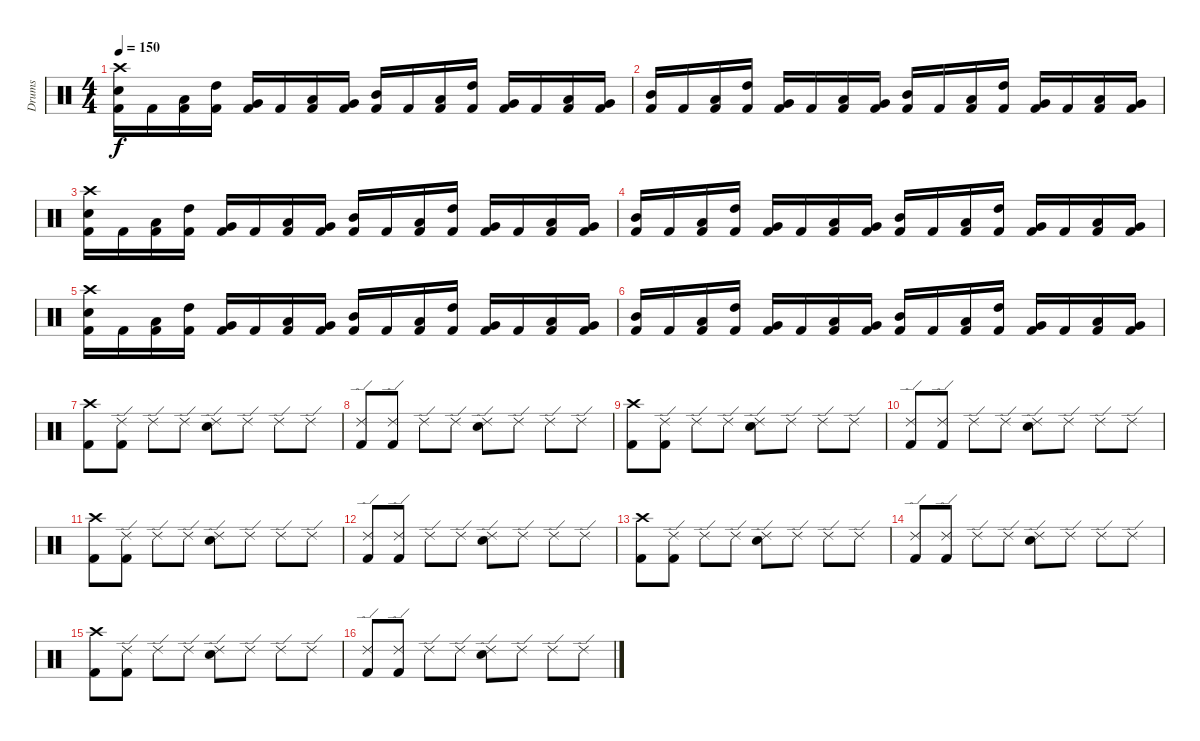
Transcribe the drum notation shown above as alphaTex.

\track ("Drums" "Drums") {instrument percussion}
\staff {score}
\articulation defaults
\ts (4 4)
\tempo 150
\clef neutral
\ks c
("Crash high (hit)" "Snare (hit) 2" "Kick (hit) 2").16{dy f} "Kick (hit) 2".16 ("Low Tom (hit)" "Kick (hit) 2").16 ("High Tom (hit)" "Kick (hit) 2").16 ("Very Low Tom (hit)" "Kick (hit) 2").16 "Kick (hit) 2".16 ("Low Tom (hit)" "Kick (hit) 2").16 ("Very Low Tom (hit)" "Kick (hit) 2").16 ("Mid Tom (hit)" "Kick (hit) 2").16 "Kick (hit) 2".16 ("Low Tom (hit)" "Kick (hit) 2").16 ("High Tom (hit)" "Kick (hit) 2").16 ("Very Low Tom (hit)" "Kick (hit) 2").16 "Kick (hit) 2".16 ("Low Tom (hit)" "Kick (hit) 2").16 ("Very Low Tom (hit)" "Kick (hit) 2").16 |
("Mid Tom (hit)" "Kick (hit) 2").16 "Kick (hit) 2".16 ("Low Tom (hit)" "Kick (hit) 2").16 ("High Tom (hit)" "Kick (hit) 2").16 ("Very Low Tom (hit)" "Kick (hit) 2").16 "Kick (hit) 2".16 ("Low Tom (hit)" "Kick (hit) 2").16 ("Very Low Tom (hit)" "Kick (hit) 2").16 ("Mid Tom (hit)" "Kick (hit) 2").16 "Kick (hit) 2".16 ("Low Tom (hit)" "Kick (hit) 2").16 ("High Tom (hit)" "Kick (hit) 2").16 ("Very Low Tom (hit)" "Kick (hit) 2").16 "Kick (hit) 2".16 ("Low Tom (hit)" "Kick (hit) 2").16 ("Very Low Tom (hit)" "Kick (hit) 2").16 |
("Crash high (hit)" "Snare (hit) 2" "Kick (hit) 2").16 "Kick (hit) 2".16 ("Low Tom (hit)" "Kick (hit) 2").16 ("High Tom (hit)" "Kick (hit) 2").16 ("Very Low Tom (hit)" "Kick (hit) 2").16 "Kick (hit) 2".16 ("Low Tom (hit)" "Kick (hit) 2").16 ("Very Low Tom (hit)" "Kick (hit) 2").16 ("Mid Tom (hit)" "Kick (hit) 2").16 "Kick (hit) 2".16 ("Low Tom (hit)" "Kick (hit) 2").16 ("High Tom (hit)" "Kick (hit) 2").16 ("Very Low Tom (hit)" "Kick (hit) 2").16 "Kick (hit) 2".16 ("Low Tom (hit)" "Kick (hit) 2").16 ("Very Low Tom (hit)" "Kick (hit) 2").16 |
("Mid Tom (hit)" "Kick (hit) 2").16 "Kick (hit) 2".16 ("Low Tom (hit)" "Kick (hit) 2").16 ("High Tom (hit)" "Kick (hit) 2").16 ("Very Low Tom (hit)" "Kick (hit) 2").16 "Kick (hit) 2".16 ("Low Tom (hit)" "Kick (hit) 2").16 ("Very Low Tom (hit)" "Kick (hit) 2").16 ("Mid Tom (hit)" "Kick (hit) 2").16 "Kick (hit) 2".16 ("Low Tom (hit)" "Kick (hit) 2").16 ("High Tom (hit)" "Kick (hit) 2").16 ("Very Low Tom (hit)" "Kick (hit) 2").16 "Kick (hit) 2".16 ("Low Tom (hit)" "Kick (hit) 2").16 ("Very Low Tom (hit)" "Kick (hit) 2").16 |
("Crash high (hit)" "Snare (hit) 2" "Kick (hit) 2").16 "Kick (hit) 2".16 ("Low Tom (hit)" "Kick (hit) 2").16 ("High Tom (hit)" "Kick (hit) 2").16 ("Very Low Tom (hit)" "Kick (hit) 2").16 "Kick (hit) 2".16 ("Low Tom (hit)" "Kick (hit) 2").16 ("Very Low Tom (hit)" "Kick (hit) 2").16 ("Mid Tom (hit)" "Kick (hit) 2").16 "Kick (hit) 2".16 ("Low Tom (hit)" "Kick (hit) 2").16 ("High Tom (hit)" "Kick (hit) 2").16 ("Very Low Tom (hit)" "Kick (hit) 2").16 "Kick (hit) 2".16 ("Low Tom (hit)" "Kick (hit) 2").16 ("Very Low Tom (hit)" "Kick (hit) 2").16 |
("Mid Tom (hit)" "Kick (hit) 2").16 "Kick (hit) 2".16 ("Low Tom (hit)" "Kick (hit) 2").16 ("High Tom (hit)" "Kick (hit) 2").16 ("Very Low Tom (hit)" "Kick (hit) 2").16 "Kick (hit) 2".16 ("Low Tom (hit)" "Kick (hit) 2").16 ("Very Low Tom (hit)" "Kick (hit) 2").16 ("Mid Tom (hit)" "Kick (hit) 2").16 "Kick (hit) 2".16 ("Low Tom (hit)" "Kick (hit) 2").16 ("High Tom (hit)" "Kick (hit) 2").16 ("Very Low Tom (hit)" "Kick (hit) 2").16 "Kick (hit) 2".16 ("Low Tom (hit)" "Kick (hit) 2").16 ("Very Low Tom (hit)" "Kick (hit) 2").16 |
("Crash high (hit)" "Kick (hit) 2").8{volume 8} ("Ride (edge) 2" "Kick (hit) 2").8 "Ride (edge) 2".8 "Ride (edge) 2".8 ("Ride (edge) 2" "Snare (hit) 2").8 "Ride (edge) 2".8 "Ride (edge) 2".8 "Ride (edge) 2".8 |
("Ride (edge) 2" "Kick (hit) 2").8 ("Ride (edge) 2" "Kick (hit) 2").8 "Ride (edge) 2".8 "Ride (edge) 2".8 ("Ride (edge) 2" "Snare (hit) 2").8 "Ride (edge) 2".8 "Ride (edge) 2".8 "Ride (edge) 2".8 |
("Crash high (hit)" "Kick (hit) 2").8 ("Ride (edge) 2" "Kick (hit) 2").8 "Ride (edge) 2".8 "Ride (edge) 2".8 ("Ride (edge) 2" "Snare (hit) 2").8 "Ride (edge) 2".8 "Ride (edge) 2".8 "Ride (edge) 2".8 |
("Ride (edge) 2" "Kick (hit) 2").8 ("Ride (edge) 2" "Kick (hit) 2").8 "Ride (edge) 2".8 "Ride (edge) 2".8 ("Ride (edge) 2" "Snare (hit) 2").8 "Ride (edge) 2".8 "Ride (edge) 2".8 "Ride (edge) 2".8 |
("Crash high (hit)" "Kick (hit) 2").8{volume 6} ("Ride (edge) 2" "Kick (hit) 2").8 "Ride (edge) 2".8 "Ride (edge) 2".8 ("Ride (edge) 2" "Snare (hit) 2").8 "Ride (edge) 2".8 "Ride (edge) 2".8 "Ride (edge) 2".8 |
("Ride (edge) 2" "Kick (hit) 2").8 ("Ride (edge) 2" "Kick (hit) 2").8 "Ride (edge) 2".8 "Ride (edge) 2".8 ("Ride (edge) 2" "Snare (hit) 2").8 "Ride (edge) 2".8 "Ride (edge) 2".8 "Ride (edge) 2".8 |
("Crash high (hit)" "Kick (hit) 2").8 ("Ride (edge) 2" "Kick (hit) 2").8 "Ride (edge) 2".8 "Ride (edge) 2".8 ("Ride (edge) 2" "Snare (hit) 2").8 "Ride (edge) 2".8 "Ride (edge) 2".8 "Ride (edge) 2".8 |
("Ride (edge) 2" "Kick (hit) 2").8 ("Ride (edge) 2" "Kick (hit) 2").8 "Ride (edge) 2".8 "Ride (edge) 2".8 ("Ride (edge) 2" "Snare (hit) 2").8 "Ride (edge) 2".8 "Ride (edge) 2".8 "Ride (edge) 2".8 |
("Crash high (hit)" "Kick (hit) 2").8{volume 4} ("Ride (edge) 2" "Kick (hit) 2").8 "Ride (edge) 2".8 "Ride (edge) 2".8 ("Ride (edge) 2" "Snare (hit) 2").8 "Ride (edge) 2".8 "Ride (edge) 2".8 "Ride (edge) 2".8 |
("Ride (edge) 2" "Kick (hit) 2").8 ("Ride (edge) 2" "Kick (hit) 2").8 "Ride (edge) 2".8 "Ride (edge) 2".8 ("Ride (edge) 2" "Snare (hit) 2").8 "Ride (edge) 2".8 "Ride (edge) 2".8 "Ride (edge) 2".8
